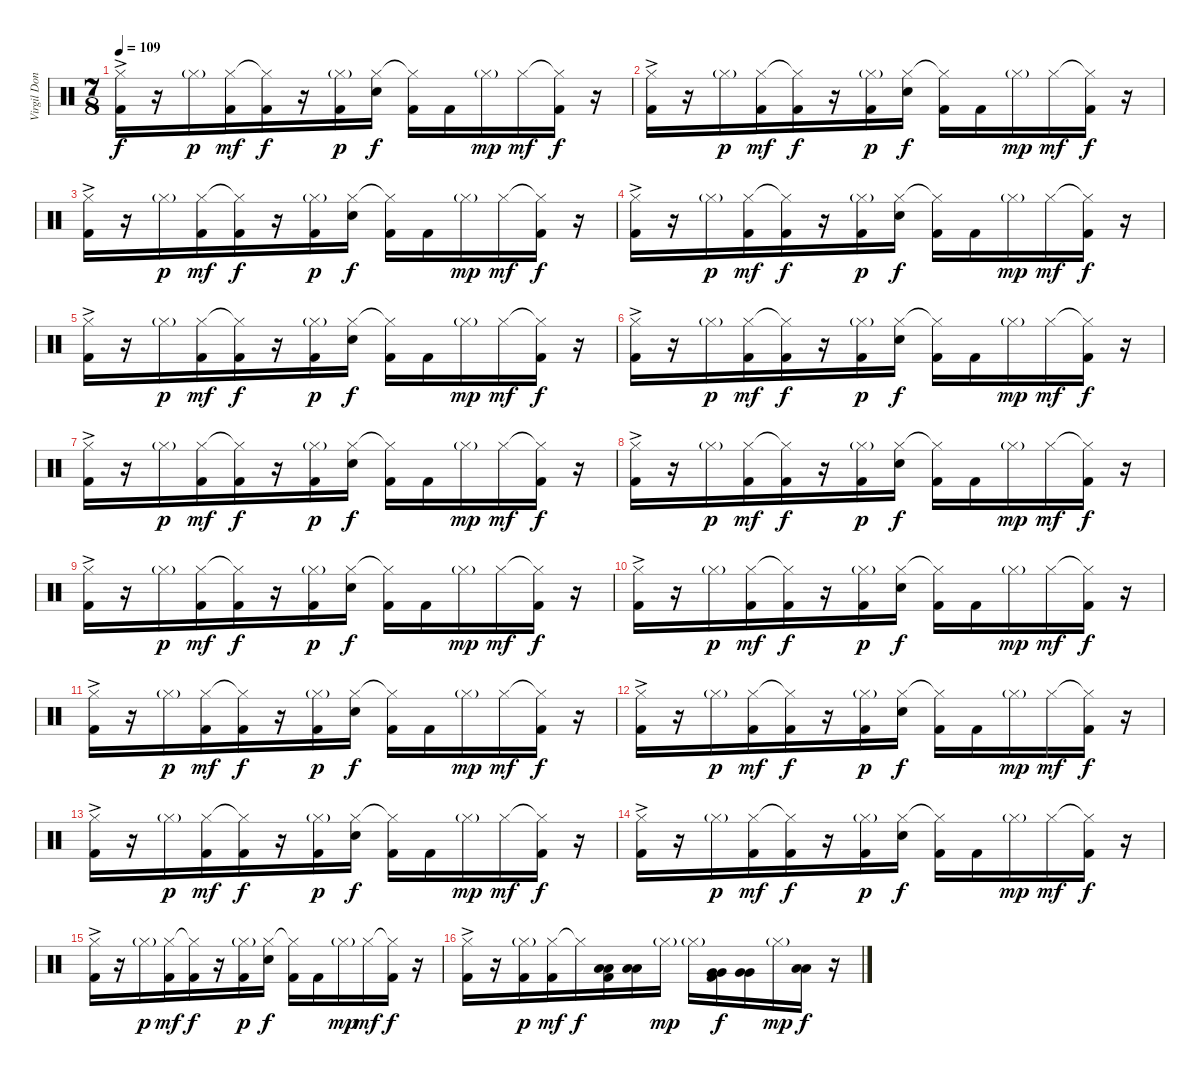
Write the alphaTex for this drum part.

\track ("Virgil Donati" "Virgil Don") {instrument percussion}
\staff {score}
\articulation defaults
\ts (7 8)
\tempo 109
\clef neutral
\ks c
("Hi-Hat (closed)"{ac} "Kick (hit) 2").16{dy f} r.16 "Hi-Hat (closed)"{g}.16{dy p} ("Hi-Hat (closed)" "Kick (hit) 2").16{dy mf} ("Hi-Hat (closed)"{t} "Kick (hit) 2").16{dy f} r.16 ("Hi-Hat (closed)"{g} "Kick (hit) 2").16{dy p} ("Hi-Hat (closed)" "Electric Snare (hit)").16{dy f} ("Hi-Hat (closed)"{t} "Kick (hit) 2").16 "Kick (hit) 2".16 "Hi-Hat (closed)"{g}.16{dy mp} "Hi-Hat (closed)".16{dy mf} ("Hi-Hat (closed)"{t} "Kick (hit) 2").16{dy f} r.16 |
("Hi-Hat (closed)"{ac} "Kick (hit) 2").16 r.16 "Hi-Hat (closed)"{g}.16{dy p} ("Hi-Hat (closed)" "Kick (hit) 2").16{dy mf} ("Hi-Hat (closed)"{t} "Kick (hit) 2").16{dy f} r.16 ("Hi-Hat (closed)"{g} "Kick (hit) 2").16{dy p} ("Hi-Hat (closed)" "Electric Snare (hit)").16{dy f} ("Hi-Hat (closed)"{t} "Kick (hit) 2").16 "Kick (hit) 2".16 "Hi-Hat (closed)"{g}.16{dy mp} "Hi-Hat (closed)".16{dy mf} ("Hi-Hat (closed)"{t} "Kick (hit) 2").16{dy f} r.16 |
("Hi-Hat (closed)"{ac} "Kick (hit) 2").16 r.16 "Hi-Hat (closed)"{g}.16{dy p} ("Hi-Hat (closed)" "Kick (hit) 2").16{dy mf} ("Hi-Hat (closed)"{t} "Kick (hit) 2").16{dy f} r.16 ("Hi-Hat (closed)"{g} "Kick (hit) 2").16{dy p} ("Hi-Hat (closed)" "Electric Snare (hit)").16{dy f} ("Hi-Hat (closed)"{t} "Kick (hit) 2").16 "Kick (hit) 2".16 "Hi-Hat (closed)"{g}.16{dy mp} "Hi-Hat (closed)".16{dy mf} ("Hi-Hat (closed)"{t} "Kick (hit) 2").16{dy f} r.16 |
("Hi-Hat (closed)"{ac} "Kick (hit) 2").16 r.16 "Hi-Hat (closed)"{g}.16{dy p} ("Hi-Hat (closed)" "Kick (hit) 2").16{dy mf} ("Hi-Hat (closed)"{t} "Kick (hit) 2").16{dy f} r.16 ("Hi-Hat (closed)"{g} "Kick (hit) 2").16{dy p} ("Hi-Hat (closed)" "Electric Snare (hit)").16{dy f} ("Hi-Hat (closed)"{t} "Kick (hit) 2").16 "Kick (hit) 2".16 "Hi-Hat (closed)"{g}.16{dy mp} "Hi-Hat (closed)".16{dy mf} ("Hi-Hat (closed)"{t} "Kick (hit) 2").16{dy f} r.16 |
("Hi-Hat (closed)"{ac} "Kick (hit) 2").16 r.16 "Hi-Hat (closed)"{g}.16{dy p} ("Hi-Hat (closed)" "Kick (hit) 2").16{dy mf} ("Hi-Hat (closed)"{t} "Kick (hit) 2").16{dy f} r.16 ("Hi-Hat (closed)"{g} "Kick (hit) 2").16{dy p} ("Hi-Hat (closed)" "Electric Snare (hit)").16{dy f} ("Hi-Hat (closed)"{t} "Kick (hit) 2").16 "Kick (hit) 2".16 "Hi-Hat (closed)"{g}.16{dy mp} "Hi-Hat (closed)".16{dy mf} ("Hi-Hat (closed)"{t} "Kick (hit) 2").16{dy f} r.16 |
("Hi-Hat (closed)"{ac} "Kick (hit) 2").16 r.16 "Hi-Hat (closed)"{g}.16{dy p} ("Hi-Hat (closed)" "Kick (hit) 2").16{dy mf} ("Hi-Hat (closed)"{t} "Kick (hit) 2").16{dy f} r.16 ("Hi-Hat (closed)"{g} "Kick (hit) 2").16{dy p} ("Hi-Hat (closed)" "Electric Snare (hit)").16{dy f} ("Hi-Hat (closed)"{t} "Kick (hit) 2").16 "Kick (hit) 2".16 "Hi-Hat (closed)"{g}.16{dy mp} "Hi-Hat (closed)".16{dy mf} ("Hi-Hat (closed)"{t} "Kick (hit) 2").16{dy f} r.16 |
("Hi-Hat (closed)"{ac} "Kick (hit) 2").16 r.16 "Hi-Hat (closed)"{g}.16{dy p} ("Hi-Hat (closed)" "Kick (hit) 2").16{dy mf} ("Hi-Hat (closed)"{t} "Kick (hit) 2").16{dy f} r.16 ("Hi-Hat (closed)"{g} "Kick (hit) 2").16{dy p} ("Hi-Hat (closed)" "Electric Snare (hit)").16{dy f} ("Hi-Hat (closed)"{t} "Kick (hit) 2").16 "Kick (hit) 2".16 "Hi-Hat (closed)"{g}.16{dy mp} "Hi-Hat (closed)".16{dy mf} ("Hi-Hat (closed)"{t} "Kick (hit) 2").16{dy f} r.16 |
("Hi-Hat (closed)"{ac} "Kick (hit) 2").16 r.16 "Hi-Hat (closed)"{g}.16{dy p} ("Hi-Hat (closed)" "Kick (hit) 2").16{dy mf} ("Hi-Hat (closed)"{t} "Kick (hit) 2").16{dy f} r.16 ("Hi-Hat (closed)"{g} "Kick (hit) 2").16{dy p} ("Hi-Hat (closed)" "Electric Snare (hit)").16{dy f} ("Hi-Hat (closed)"{t} "Kick (hit) 2").16 "Kick (hit) 2".16 "Hi-Hat (closed)"{g}.16{dy mp} "Hi-Hat (closed)".16{dy mf} ("Hi-Hat (closed)"{t} "Kick (hit) 2").16{dy f} r.16 |
("Hi-Hat (closed)"{ac} "Kick (hit) 2").16 r.16 "Hi-Hat (closed)"{g}.16{dy p} ("Hi-Hat (closed)" "Kick (hit) 2").16{dy mf} ("Hi-Hat (closed)"{t} "Kick (hit) 2").16{dy f} r.16 ("Hi-Hat (closed)"{g} "Kick (hit) 2").16{dy p} ("Hi-Hat (closed)" "Electric Snare (hit)").16{dy f} ("Hi-Hat (closed)"{t} "Kick (hit) 2").16 "Kick (hit) 2".16 "Hi-Hat (closed)"{g}.16{dy mp} "Hi-Hat (closed)".16{dy mf} ("Hi-Hat (closed)"{t} "Kick (hit) 2").16{dy f} r.16 |
("Hi-Hat (closed)"{ac} "Kick (hit) 2").16 r.16 "Hi-Hat (closed)"{g}.16{dy p} ("Hi-Hat (closed)" "Kick (hit) 2").16{dy mf} ("Hi-Hat (closed)"{t} "Kick (hit) 2").16{dy f} r.16 ("Hi-Hat (closed)"{g} "Kick (hit) 2").16{dy p} ("Hi-Hat (closed)" "Electric Snare (hit)").16{dy f} ("Hi-Hat (closed)"{t} "Kick (hit) 2").16 "Kick (hit) 2".16 "Hi-Hat (closed)"{g}.16{dy mp} "Hi-Hat (closed)".16{dy mf} ("Hi-Hat (closed)"{t} "Kick (hit) 2").16{dy f} r.16 |
("Hi-Hat (closed)"{ac} "Kick (hit) 2").16 r.16 "Hi-Hat (closed)"{g}.16{dy p} ("Hi-Hat (closed)" "Kick (hit) 2").16{dy mf} ("Hi-Hat (closed)"{t} "Kick (hit) 2").16{dy f} r.16 ("Hi-Hat (closed)"{g} "Kick (hit) 2").16{dy p} ("Hi-Hat (closed)" "Electric Snare (hit)").16{dy f} ("Hi-Hat (closed)"{t} "Kick (hit) 2").16 "Kick (hit) 2".16 "Hi-Hat (closed)"{g}.16{dy mp} "Hi-Hat (closed)".16{dy mf} ("Hi-Hat (closed)"{t} "Kick (hit) 2").16{dy f} r.16 |
("Hi-Hat (closed)"{ac} "Kick (hit) 2").16 r.16 "Hi-Hat (closed)"{g}.16{dy p} ("Hi-Hat (closed)" "Kick (hit) 2").16{dy mf} ("Hi-Hat (closed)"{t} "Kick (hit) 2").16{dy f} r.16 ("Hi-Hat (closed)"{g} "Kick (hit) 2").16{dy p} ("Hi-Hat (closed)" "Electric Snare (hit)").16{dy f} ("Hi-Hat (closed)"{t} "Kick (hit) 2").16 "Kick (hit) 2".16 "Hi-Hat (closed)"{g}.16{dy mp} "Hi-Hat (closed)".16{dy mf} ("Hi-Hat (closed)"{t} "Kick (hit) 2").16{dy f} r.16 |
("Hi-Hat (closed)"{ac} "Kick (hit) 2").16 r.16 "Hi-Hat (closed)"{g}.16{dy p} ("Hi-Hat (closed)" "Kick (hit) 2").16{dy mf} ("Hi-Hat (closed)"{t} "Kick (hit) 2").16{dy f} r.16 ("Hi-Hat (closed)"{g} "Kick (hit) 2").16{dy p} ("Hi-Hat (closed)" "Electric Snare (hit)").16{dy f} ("Hi-Hat (closed)"{t} "Kick (hit) 2").16 "Kick (hit) 2".16 "Hi-Hat (closed)"{g}.16{dy mp} "Hi-Hat (closed)".16{dy mf} ("Hi-Hat (closed)"{t} "Kick (hit) 2").16{dy f} r.16 |
("Hi-Hat (closed)"{ac} "Kick (hit) 2").16 r.16 "Hi-Hat (closed)"{g}.16{dy p} ("Hi-Hat (closed)" "Kick (hit) 2").16{dy mf} ("Hi-Hat (closed)"{t} "Kick (hit) 2").16{dy f} r.16 ("Hi-Hat (closed)"{g} "Kick (hit) 2").16{dy p} ("Hi-Hat (closed)" "Electric Snare (hit)").16{dy f} ("Hi-Hat (closed)"{t} "Kick (hit) 2").16 "Kick (hit) 2".16 "Hi-Hat (closed)"{g}.16{dy mp} "Hi-Hat (closed)".16{dy mf} ("Hi-Hat (closed)"{t} "Kick (hit) 2").16{dy f} r.16 |
("Hi-Hat (closed)"{ac} "Kick (hit) 2").16 r.16 "Hi-Hat (closed)"{g}.16{dy p} ("Hi-Hat (closed)" "Kick (hit) 2").16{dy mf} ("Hi-Hat (closed)"{t} "Kick (hit) 2").16{dy f} r.16 ("Hi-Hat (closed)"{g} "Kick (hit) 2").16{dy p} ("Hi-Hat (closed)" "Electric Snare (hit)").16{dy f} ("Hi-Hat (closed)"{t} "Kick (hit) 2").16 "Kick (hit) 2".16 "Hi-Hat (closed)"{g}.16{dy mp} "Hi-Hat (closed)".16{dy mf} ("Hi-Hat (closed)"{t} "Kick (hit) 2").16{dy f} r.16 |
("Hi-Hat (closed)"{ac} "Kick (hit) 2").16 r.16 ("Hi-Hat (closed)"{g} "Kick (hit) 2").16{dy p} ("Hi-Hat (closed)" "Kick (hit) 2").16{dy mf} "Hi-Hat (closed)"{t}.16{dy f} ("Low Tom (hit)" "Low Tom (hit)" "Kick (hit) 2").16 ("Low Tom (hit)" "Low Tom (hit)").16 "Hi-Hat (closed)"{g}.16{dy mp} "Hi-Hat (closed)"{g}.16 ("Very Low Tom (hit)" "Very Low Tom (hit)" "Kick (hit) 2").16{dy f} ("Very Low Tom (hit)" "Very Low Tom (hit)").16 "Hi-Hat (closed)"{g}.16{dy mp} ("Low Floor Tom (hit)" "Low Floor Tom (hit)").16{dy f} r.16
